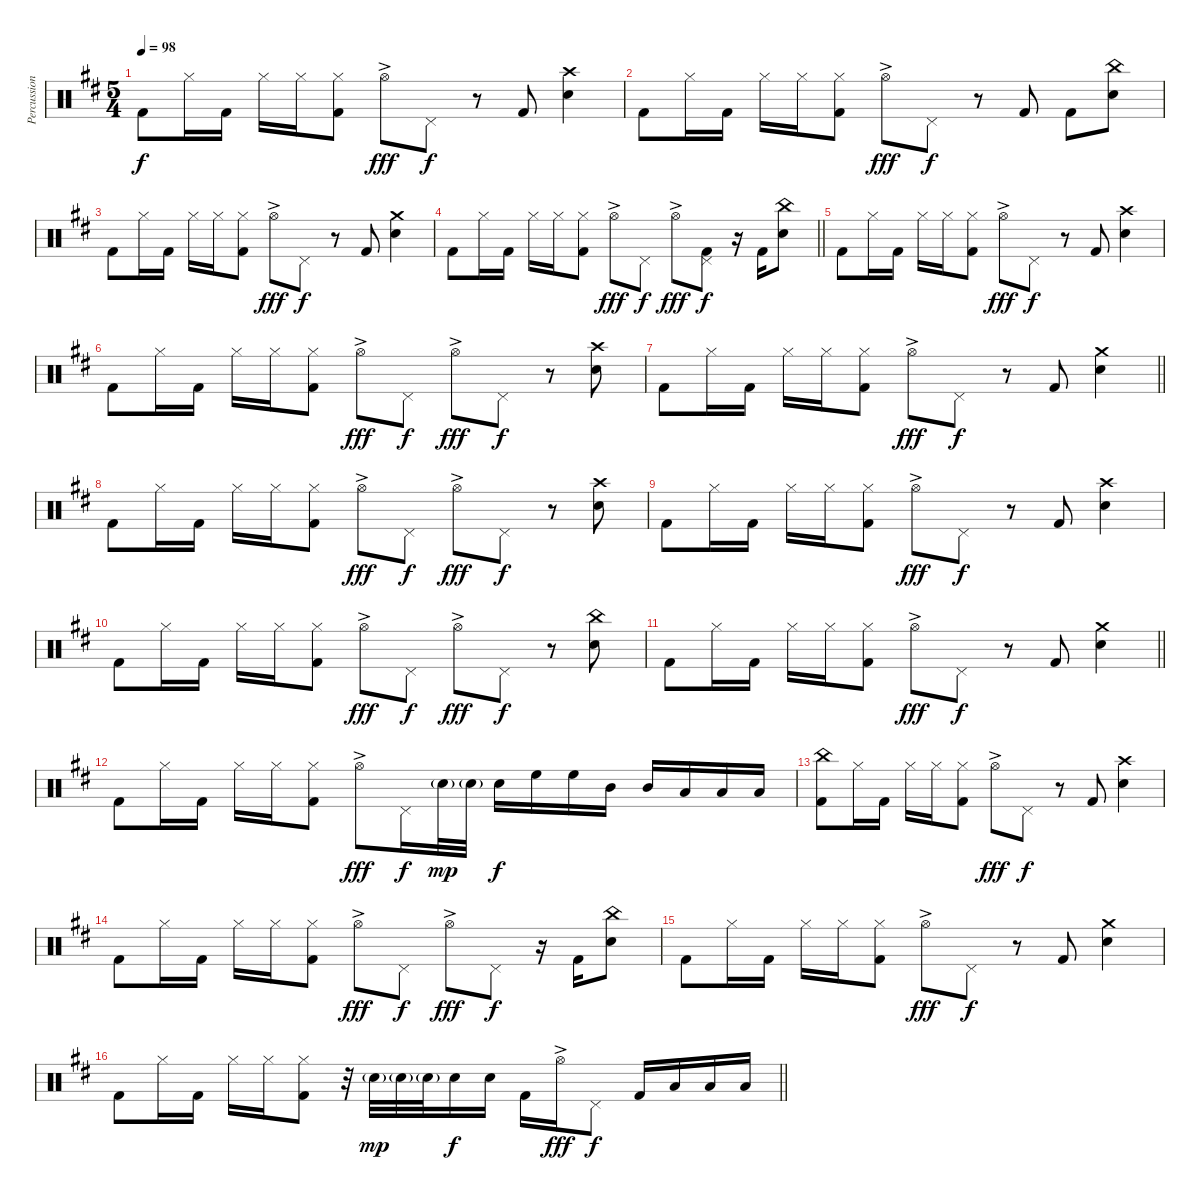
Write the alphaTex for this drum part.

\track ("Percussions" "Percussion") {instrument percussion}
\staff {score}
\articulation defaults
\ts (5 4)
\tempo 98
\clef neutral
\ks bminor "Kick (hit) 2".8{dy f} "Hi-Hat (closed)".16 "Kick (hit) 2".16 "Hi-Hat (closed)".16 "Hi-Hat (closed)".16
("Hi-Hat (closed)" "Kick (hit) 2").8 "Hi-Hat (open)"{ac}.8{dy fff} "Pedal Hi-Hat (hit)".8{dy f} r.8 "Kick (hit) 2".8 ("Crash high (hit)" "Snare (hit) 2").4 |
"Kick (hit) 2".8 "Hi-Hat (closed)".16 "Kick (hit) 2".16 "Hi-Hat (closed)".16 "Hi-Hat (closed)".16 ("Hi-Hat (closed)" "Kick (hit) 2").8 "Hi-Hat (open)"{ac}.8{dy fff} "Pedal Hi-Hat (hit)".8{dy f} r.8 "Kick (hit) 2".8 "Kick (hit) 2".8 ("China (hit)" "Snare (hit) 2").8 |
"Kick (hit) 2".8 "Hi-Hat (closed)".16 "Kick (hit) 2".16 "Hi-Hat (closed)".16 "Hi-Hat (closed)".16 ("Hi-Hat (closed)" "Kick (hit) 2").8 "Hi-Hat (open)"{ac}.8{dy fff} "Pedal Hi-Hat (hit)".8{dy f} r.8 "Kick (hit) 2".8 ("Crash medium (hit)" "Snare (hit) 2").4 |
\barLineRight lightlight "Kick (hit) 2".8 "Hi-Hat (closed)".16 "Kick (hit) 2".16 "Hi-Hat (closed)".16 "Hi-Hat (closed)".16
("Hi-Hat (closed)" "Kick (hit) 2").8 "Hi-Hat (open)"{ac}.8{dy fff} "Pedal Hi-Hat (hit)".8{dy f} "Hi-Hat (open)"{ac}.8{dy fff} ("Pedal Hi-Hat (hit)" "Kick (hit) 2").8{dy f} r.16 "Kick (hit) 2".16 ("China (hit)" "Snare (hit) 2").8 |
"Kick (hit) 2".8 "Hi-Hat (closed)".16 "Kick (hit) 2".16 "Hi-Hat (closed)".16 "Hi-Hat (closed)".16 ("Hi-Hat (closed)" "Kick (hit) 2").8 "Hi-Hat (open)"{ac}.8{dy fff} "Pedal Hi-Hat (hit)".8{dy f} r.8 "Kick (hit) 2".8 ("Crash high (hit)" "Snare (hit) 2").4 |
"Kick (hit) 2".8 "Hi-Hat (closed)".16 "Kick (hit) 2".16 "Hi-Hat (closed)".16 "Hi-Hat (closed)".16 ("Hi-Hat (closed)" "Kick (hit) 2").8 "Hi-Hat (open)"{ac}.8{dy fff} "Pedal Hi-Hat (hit)".8{dy f} "Hi-Hat (open)"{ac}.8{dy fff} "Pedal Hi-Hat (hit)".8{dy f} r.8 ("Crash high (hit)" "Snare (hit) 2").8 |
\barLineRight lightlight "Kick (hit) 2".8 "Hi-Hat (closed)".16 "Kick (hit) 2".16 "Hi-Hat (closed)".16 "Hi-Hat (closed)".16
("Hi-Hat (closed)" "Kick (hit) 2").8 "Hi-Hat (open)"{ac}.8{dy fff} "Pedal Hi-Hat (hit)".8{dy f} r.8 "Kick (hit) 2".8 ("Crash medium (hit)" "Snare (hit) 2").4 |
"Kick (hit) 2".8 "Hi-Hat (closed)".16 "Kick (hit) 2".16 "Hi-Hat (closed)".16 "Hi-Hat (closed)".16 ("Hi-Hat (closed)" "Kick (hit) 2").8 "Hi-Hat (open)"{ac}.8{dy fff} "Pedal Hi-Hat (hit)".8{dy f} "Hi-Hat (open)"{ac}.8{dy fff} "Pedal Hi-Hat (hit)".8{dy f} r.8 ("Crash high (hit)" "Snare (hit) 2").8 |
"Kick (hit) 2".8 "Hi-Hat (closed)".16 "Kick (hit) 2".16 "Hi-Hat (closed)".16 "Hi-Hat (closed)".16 ("Hi-Hat (closed)" "Kick (hit) 2").8 "Hi-Hat (open)"{ac}.8{dy fff} "Pedal Hi-Hat (hit)".8{dy f} r.8 "Kick (hit) 2".8 ("Crash high (hit)" "Snare (hit) 2").4 |
"Kick (hit) 2".8 "Hi-Hat (closed)".16 "Kick (hit) 2".16 "Hi-Hat (closed)".16 "Hi-Hat (closed)".16 ("Hi-Hat (closed)" "Kick (hit) 2").8 "Hi-Hat (open)"{ac}.8{dy fff} "Pedal Hi-Hat (hit)".8{dy f} "Hi-Hat (open)"{ac}.8{dy fff} "Pedal Hi-Hat (hit)".8{dy f} r.8 ("China (hit)" "Snare (hit) 2").8 |
\barLineRight lightlight "Kick (hit) 2".8 "Hi-Hat (closed)".16 "Kick (hit) 2".16 "Hi-Hat (closed)".16 "Hi-Hat (closed)".16
("Hi-Hat (closed)" "Kick (hit) 2").8 "Hi-Hat (open)"{ac}.8{dy fff} "Pedal Hi-Hat (hit)".8{dy f} r.8 "Kick (hit) 2".8 ("Crash medium (hit)" "Snare (hit) 2").4 |
"Kick (hit) 2".8 "Hi-Hat (closed)".16 "Kick (hit) 2".16 "Hi-Hat (closed)".16 "Hi-Hat (closed)".16 ("Hi-Hat (closed)" "Kick (hit) 2").8 "Hi-Hat (open)"{ac}.8{dy fff} "Pedal Hi-Hat (hit)".16{dy f} "Snare (hit) 2"{g}.32{dy mp} "Snare (hit) 2"{g}.32 "Snare (hit) 2".16{dy f} "High Floor Tom (hit)".16 "High Floor Tom (hit)".16 "Mid Tom (hit)".16 "Mid Tom (hit)".16 "Low Tom (hit)".16 "Low Tom (hit)".16 "Low Floor Tom (hit)".16 |
("China (hit)" "Kick (hit) 2").8 "Hi-Hat (closed)".16 "Kick (hit) 2".16 "Hi-Hat (closed)".16 "Hi-Hat (closed)".16 ("Hi-Hat (closed)" "Kick (hit) 2").8 "Hi-Hat (open)"{ac}.8{dy fff} "Pedal Hi-Hat (hit)".8{dy f} r.8 "Kick (hit) 2".8 ("Crash high (hit)" "Snare (hit) 2").4 |
"Kick (hit) 2".8 "Hi-Hat (closed)".16 "Kick (hit) 2".16 "Hi-Hat (closed)".16 "Hi-Hat (closed)".16 ("Hi-Hat (closed)" "Kick (hit) 2").8 "Hi-Hat (open)"{ac}.8{dy fff} "Pedal Hi-Hat (hit)".8{dy f} "Hi-Hat (open)"{ac}.8{dy fff} "Pedal Hi-Hat (hit)".8{dy f} r.16 "Kick (hit) 2".16 ("China (hit)" "Snare (hit) 2").8 |
"Kick (hit) 2".8 "Hi-Hat (closed)".16 "Kick (hit) 2".16 "Hi-Hat (closed)".16 "Hi-Hat (closed)".16 ("Hi-Hat (closed)" "Kick (hit) 2").8 "Hi-Hat (open)"{ac}.8{dy fff} "Pedal Hi-Hat (hit)".8{dy f} r.8 "Kick (hit) 2".8 ("Crash medium (hit)" "Snare (hit) 2").4 |
\barLineRight lightlight "Kick (hit) 2".8 "Hi-Hat (closed)".16 "Kick (hit) 2".16 "Hi-Hat (closed)".16 "Hi-Hat (closed)".16
("Hi-Hat (closed)" "Kick (hit) 2").8 r.32 "Snare (hit) 2"{g}.32{dy mp} "Snare (hit) 2"{g}.32 "Snare (hit) 2"{g}.32 "Snare (hit) 2".16{dy f} "Snare (hit) 2".16 "Kick (hit) 2".16 "Hi-Hat (open)"{ac}.16{dy fff} "Pedal Hi-Hat (hit)".8{dy f} "Kick (hit) 2".16 "Low Tom (hit)".16 "Low Tom (hit)".16 "Low Floor Tom (hit)".16
